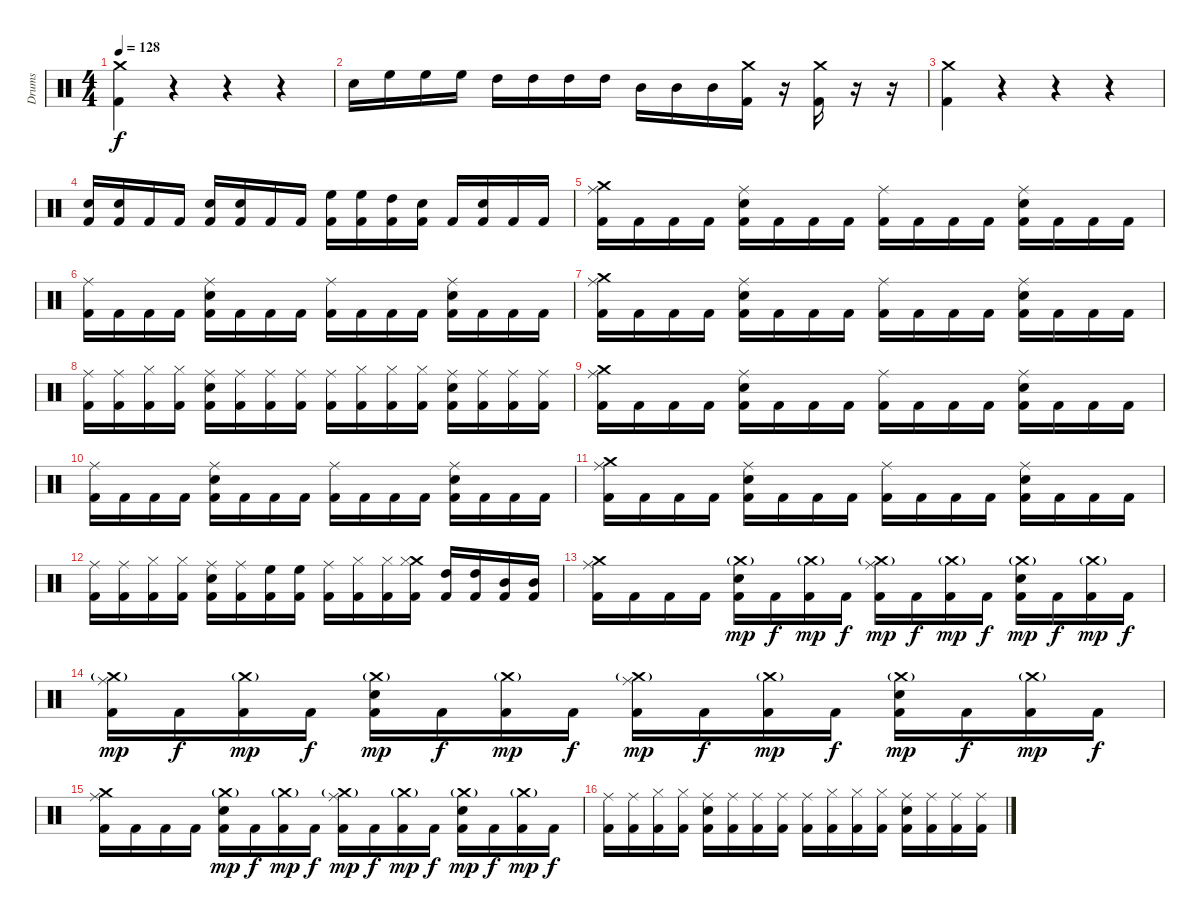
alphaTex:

\track ("Drums" "Drums") {instrument percussion}
\staff {score}
\articulation defaults
\ts (4 4)
\tempo 128
\clef neutral
\ks c
("Crash medium (hit)" "Kick (hit) 2").4{dy f} r.4 r.4 r.4 |
"Snare (hit) 2".16 "High Floor Tom (hit)".16 "High Floor Tom (hit)".16 "High Floor Tom (hit)".16 "High Tom (hit)".16 "High Tom (hit)".16 "High Tom (hit)".16 "High Tom (hit)".16 "Mid Tom (hit)".16 "Mid Tom (hit)".16 "Mid Tom (hit)".16 ("Crash medium (hit)" "Kick (hit) 2").16 r.16 ("Crash medium (hit)" "Kick (hit) 2").16 r.16 r.16 |
("Crash medium (hit)" "Kick (hit) 2").4 r.4 r.4 r.4 |
("Snare (hit) 2" "Kick (hit) 2").16 ("Snare (hit) 2" "Kick (hit) 2").16 "Kick (hit) 2".16 "Kick (hit) 2".16 ("Snare (hit) 2" "Kick (hit) 2").16 ("Snare (hit) 2" "Kick (hit) 2").16 "Kick (hit) 2".16 "Kick (hit) 2".16 ("High Floor Tom (hit)" "Kick (hit) 2").16 ("High Floor Tom (hit)" "Kick (hit) 2").16 ("High Tom (hit)" "Kick (hit) 2").16 ("Snare (hit) 2" "Kick (hit) 2").16 "Kick (hit) 2".16 ("Snare (hit) 2" "Kick (hit) 2").16 "Kick (hit) 2".16 "Kick (hit) 2".16 |
("Crash medium (hit)" "Ride (middle)" "Kick (hit) 2").16 "Kick (hit) 2".16 "Kick (hit) 2".16 "Kick (hit) 2".16 ("Ride (middle)" "Snare (hit) 2" "Kick (hit) 2").16 "Kick (hit) 2".16 "Kick (hit) 2".16 "Kick (hit) 2".16 ("Ride (middle)" "Kick (hit) 2").16 "Kick (hit) 2".16 "Kick (hit) 2".16 "Kick (hit) 2".16 ("Ride (middle)" "Snare (hit) 2" "Kick (hit) 2").16 "Kick (hit) 2".16 "Kick (hit) 2".16 "Kick (hit) 2".16 |
("Ride (middle)" "Kick (hit) 2").16 "Kick (hit) 2".16 "Kick (hit) 2".16 "Kick (hit) 2".16 ("Ride (middle)" "Snare (hit) 2" "Kick (hit) 2").16 "Kick (hit) 2".16 "Kick (hit) 2".16 "Kick (hit) 2".16 ("Ride (middle)" "Kick (hit) 2").16 "Kick (hit) 2".16 "Kick (hit) 2".16 "Kick (hit) 2".16 ("Ride (middle)" "Snare (hit) 2" "Kick (hit) 2").16 "Kick (hit) 2".16 "Kick (hit) 2".16 "Kick (hit) 2".16 |
("Crash medium (hit)" "Ride (middle)" "Kick (hit) 2").16 "Kick (hit) 2".16 "Kick (hit) 2".16 "Kick (hit) 2".16 ("Ride (middle)" "Snare (hit) 2" "Kick (hit) 2").16 "Kick (hit) 2".16 "Kick (hit) 2".16 "Kick (hit) 2".16 ("Ride (middle)" "Kick (hit) 2").16 "Kick (hit) 2".16 "Kick (hit) 2".16 "Kick (hit) 2".16 ("Ride (middle)" "Snare (hit) 2" "Kick (hit) 2").16 "Kick (hit) 2".16 "Kick (hit) 2".16 "Kick (hit) 2".16 |
("Ride (middle)" "Kick (hit) 2").16 ("Ride (middle)" "Kick (hit) 2").16 ("Hi-Hat (closed)" "Kick (hit) 2").16 ("Hi-Hat (closed)" "Kick (hit) 2").16 ("Ride (middle)" "Snare (hit) 2" "Kick (hit) 2").16 ("Ride (middle)" "Kick (hit) 2").16 ("Ride (middle)" "Kick (hit) 2").16 ("Ride (middle)" "Kick (hit) 2").16 ("Ride (middle)" "Kick (hit) 2").16 ("Hi-Hat (closed)" "Kick (hit) 2").16 ("Hi-Hat (closed)" "Kick (hit) 2").16 ("Hi-Hat (closed)" "Kick (hit) 2").16 ("Ride (middle)" "Snare (hit) 2" "Kick (hit) 2").16 ("Ride (middle)" "Kick (hit) 2").16 ("Ride (middle)" "Kick (hit) 2").16 ("Ride (middle)" "Kick (hit) 2").16 |
("Crash medium (hit)" "Ride (middle)" "Kick (hit) 2").16 "Kick (hit) 2".16 "Kick (hit) 2".16 "Kick (hit) 2".16 ("Ride (middle)" "Snare (hit) 2" "Kick (hit) 2").16 "Kick (hit) 2".16 "Kick (hit) 2".16 "Kick (hit) 2".16 ("Ride (middle)" "Kick (hit) 2").16 "Kick (hit) 2".16 "Kick (hit) 2".16 "Kick (hit) 2".16 ("Ride (middle)" "Snare (hit) 2" "Kick (hit) 2").16 "Kick (hit) 2".16 "Kick (hit) 2".16 "Kick (hit) 2".16 |
("Ride (middle)" "Kick (hit) 2").16 "Kick (hit) 2".16 "Kick (hit) 2".16 "Kick (hit) 2".16 ("Ride (middle)" "Snare (hit) 2" "Kick (hit) 2").16 "Kick (hit) 2".16 "Kick (hit) 2".16 "Kick (hit) 2".16 ("Ride (middle)" "Kick (hit) 2").16 "Kick (hit) 2".16 "Kick (hit) 2".16 "Kick (hit) 2".16 ("Ride (middle)" "Snare (hit) 2" "Kick (hit) 2").16 "Kick (hit) 2".16 "Kick (hit) 2".16 "Kick (hit) 2".16 |
("Crash medium (hit)" "Ride (middle)" "Kick (hit) 2").16 "Kick (hit) 2".16 "Kick (hit) 2".16 "Kick (hit) 2".16 ("Ride (middle)" "Snare (hit) 2" "Kick (hit) 2").16 "Kick (hit) 2".16 "Kick (hit) 2".16 "Kick (hit) 2".16 ("Ride (middle)" "Kick (hit) 2").16 "Kick (hit) 2".16 "Kick (hit) 2".16 "Kick (hit) 2".16 ("Ride (middle)" "Snare (hit) 2" "Kick (hit) 2").16 "Kick (hit) 2".16 "Kick (hit) 2".16 "Kick (hit) 2".16 |
("Ride (middle)" "Kick (hit) 2").16 ("Ride (middle)" "Kick (hit) 2").16 ("Hi-Hat (closed)" "Kick (hit) 2").16 ("Hi-Hat (closed)" "Kick (hit) 2").16 ("Ride (middle)" "Snare (hit) 2" "Kick (hit) 2").16 ("Ride (middle)" "Kick (hit) 2").16 ("High Floor Tom (hit)" "Kick (hit) 2").16 ("High Floor Tom (hit)" "Kick (hit) 2").16 ("Ride (middle)" "Kick (hit) 2").16 ("Hi-Hat (closed)" "Kick (hit) 2").16 ("Hi-Hat (closed)" "Kick (hit) 2").16 ("Crash medium (hit)" "Hi-Hat (closed)" "Kick (hit) 2").16 ("High Tom (hit)" "Kick (hit) 2").16 ("High Tom (hit)" "Kick (hit) 2").16 ("Mid Tom (hit)" "Kick (hit) 2").16 ("Mid Tom (hit)" "Kick (hit) 2").16 |
("Crash medium (hit)" "Ride (middle)" "Kick (hit) 2").16 "Kick (hit) 2".16 "Kick (hit) 2".16 "Kick (hit) 2".16 ("Crash medium (hit)"{g} "Snare (hit) 2" "Kick (hit) 2").16{dy mp} "Kick (hit) 2".16{dy f} ("Crash medium (hit)"{g} "Kick (hit) 2").16{dy mp} "Kick (hit) 2".16{dy f} ("Crash medium (hit)"{g} "Ride (middle)" "Kick (hit) 2").16{dy mp} "Kick (hit) 2".16{dy f} ("Crash medium (hit)"{g} "Kick (hit) 2").16{dy mp} "Kick (hit) 2".16{dy f} ("Crash medium (hit)"{g} "Snare (hit) 2" "Kick (hit) 2").16{dy mp} "Kick (hit) 2".16{dy f} ("Crash medium (hit)"{g} "Kick (hit) 2").16{dy mp} "Kick (hit) 2".16{dy f} |
("Crash medium (hit)"{g} "Ride (middle)" "Kick (hit) 2").16{dy mp} "Kick (hit) 2".16{dy f} ("Crash medium (hit)"{g} "Kick (hit) 2").16{dy mp} "Kick (hit) 2".16{dy f} ("Crash medium (hit)"{g} "Snare (hit) 2" "Kick (hit) 2").16{dy mp} "Kick (hit) 2".16{dy f} ("Crash medium (hit)"{g} "Kick (hit) 2").16{dy mp} "Kick (hit) 2".16{dy f} ("Crash medium (hit)"{g} "Ride (middle)" "Kick (hit) 2").16{dy mp} "Kick (hit) 2".16{dy f} ("Crash medium (hit)"{g} "Kick (hit) 2").16{dy mp} "Kick (hit) 2".16{dy f} ("Crash medium (hit)"{g} "Snare (hit) 2" "Kick (hit) 2").16{dy mp} "Kick (hit) 2".16{dy f} ("Crash medium (hit)"{g} "Kick (hit) 2").16{dy mp} "Kick (hit) 2".16{dy f} |
("Crash medium (hit)" "Ride (middle)" "Kick (hit) 2").16 "Kick (hit) 2".16 "Kick (hit) 2".16 "Kick (hit) 2".16 ("Crash medium (hit)"{g} "Snare (hit) 2" "Kick (hit) 2").16{dy mp} "Kick (hit) 2".16{dy f} ("Crash medium (hit)"{g} "Kick (hit) 2").16{dy mp} "Kick (hit) 2".16{dy f} ("Crash medium (hit)"{g} "Ride (middle)" "Kick (hit) 2").16{dy mp} "Kick (hit) 2".16{dy f} ("Crash medium (hit)"{g} "Kick (hit) 2").16{dy mp} "Kick (hit) 2".16{dy f} ("Crash medium (hit)"{g} "Snare (hit) 2" "Kick (hit) 2").16{dy mp} "Kick (hit) 2".16{dy f} ("Crash medium (hit)"{g} "Kick (hit) 2").16{dy mp} "Kick (hit) 2".16{dy f} |
("Ride (middle)" "Kick (hit) 2").16 ("Ride (middle)" "Kick (hit) 2").16 ("Hi-Hat (closed)" "Kick (hit) 2").16 ("Hi-Hat (closed)" "Kick (hit) 2").16 ("Ride (middle)" "Snare (hit) 2" "Kick (hit) 2").16 ("Ride (middle)" "Kick (hit) 2").16 ("Ride (middle)" "Kick (hit) 2").16 ("Ride (middle)" "Kick (hit) 2").16 ("Ride (middle)" "Kick (hit) 2").16 ("Hi-Hat (closed)" "Kick (hit) 2").16 ("Hi-Hat (closed)" "Kick (hit) 2").16 ("Hi-Hat (closed)" "Kick (hit) 2").16 ("Ride (middle)" "Snare (hit) 2" "Kick (hit) 2").16 ("Ride (middle)" "Kick (hit) 2").16 ("Ride (middle)" "Kick (hit) 2").16 ("Ride (middle)" "Kick (hit) 2").16
